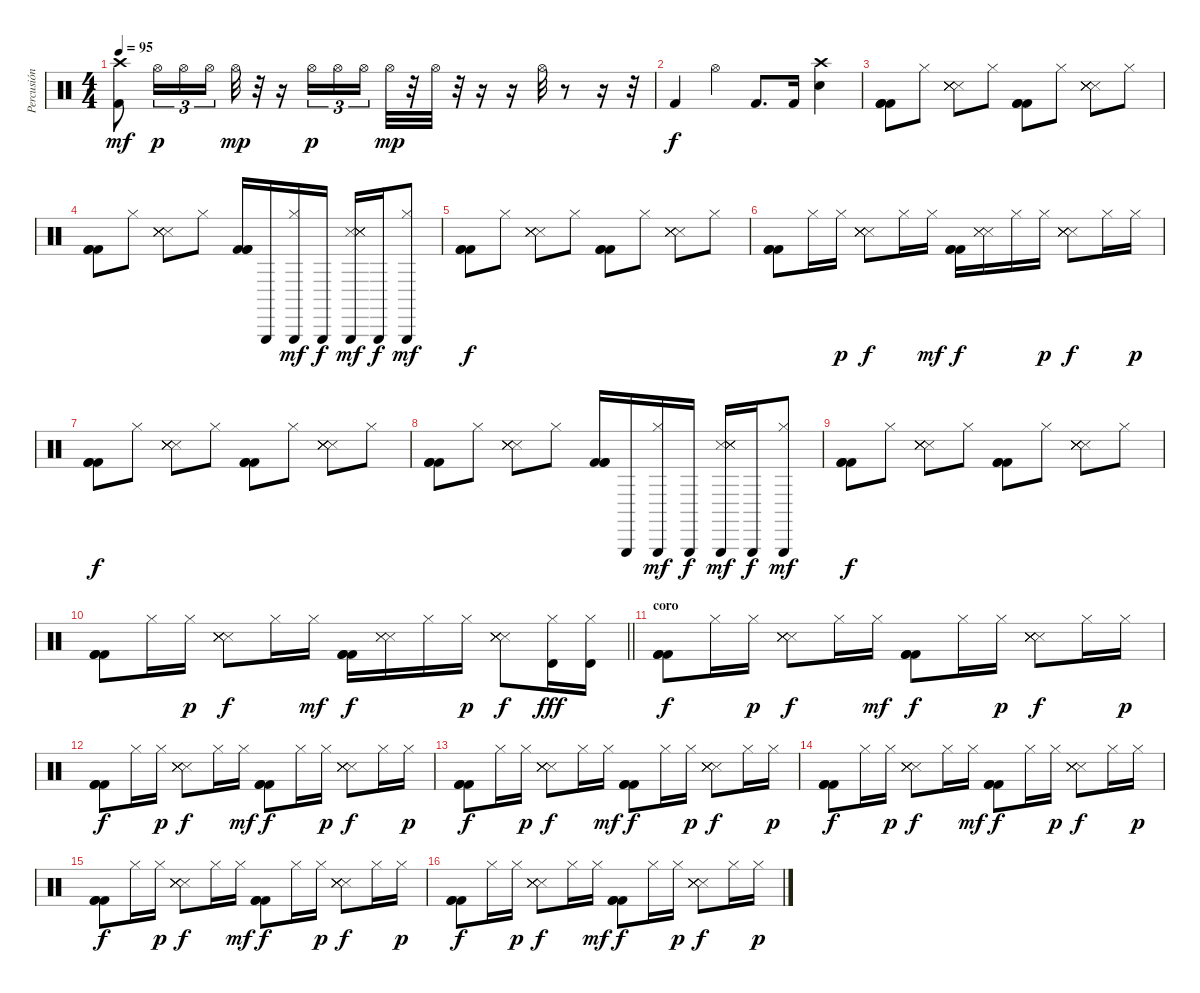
\track ("Percusión" "Percusión") {instrument percussion}
\staff
\articulation defaults
\ts (4 4)
\tempo 95
\clef neutral
\ks c
("Crash high (hit)" "Kick (hit) 2").8{dy mf} "Hi-Hat (open)".16{tu (3 2) dy p} "Hi-Hat (open)".16{tu (3 2)} "Hi-Hat (open)".16{tu (3 2)} "Hi-Hat (open)".32{dy mp} r.32 r.16 "Hi-Hat (open)".16{tu (3 2) dy p} "Hi-Hat (open)".16{tu (3 2)} "Hi-Hat (open)".16{tu (3 2)} "Hi-Hat (open)".32{dy mp} r.32 "Hi-Hat (open)".32 r.32 r.16 r.16 "Hi-Hat (open)".32 r.8 r.16 r.32 |
"Kick (hit) 2".4{dy f} "Hi-Hat (open)".4 "Kick (hit) 2".8{d} "Kick (hit) 2".16 ("Crash high (hit)" "Electric Snare (hit)").4 |
("Kick (hit) 2" "Kick (hit) 2" "Kick (hit) 2").8 "Hi-Hat (closed)".8 ("Metronome (hit)" "Metronome (hit)" "Metronome (hit)" "Metronome (hit)" "Metronome (hit)").8 "Hi-Hat (closed)".8 ("Kick (hit) 2" "Kick (hit) 2" "Kick (hit) 2").8 "Hi-Hat (closed)".8 ("Metronome (hit)" "Metronome (hit)" "Metronome (hit)" "Metronome (hit)" "Metronome (hit)").8 "Hi-Hat (closed)".8 |
("Kick (hit) 2" "Kick (hit) 2" "Kick (hit) 2").8 "Hi-Hat (closed)".8 ("Metronome (hit)" "Metronome (hit)" "Metronome (hit)" "Metronome (hit)" "Metronome (hit)").8 "Hi-Hat (closed)".8 ("Kick (hit) 2" "Kick (hit) 2" "Kick (hit) 2").16 "Triangle (hit)".16 ("Triangle (hit)" "Hi-Hat (closed)").16{dy mf} "Triangle (hit)".16{dy f} ("Metronome (hit)" "Triangle (hit)" "Metronome (hit)" "Metronome (hit)" "Metronome (hit)").16{dy mf} "Triangle (hit)".16{dy f} ("Triangle (hit)" "Hi-Hat (closed)").8{dy mf} |
("Kick (hit) 2" "Kick (hit) 2" "Kick (hit) 2").8{dy f} "Hi-Hat (closed)".8 ("Metronome (hit)" "Metronome (hit)" "Metronome (hit)" "Metronome (hit)" "Metronome (hit)").8 "Hi-Hat (closed)".8 ("Kick (hit) 2" "Kick (hit) 2" "Kick (hit) 2").8 "Hi-Hat (closed)".8 ("Metronome (hit)" "Metronome (hit)" "Metronome (hit)" "Metronome (hit)" "Metronome (hit)").8 "Hi-Hat (closed)".8 |
("Kick (hit) 2" "Kick (hit) 2" "Kick (hit) 2").8 "Hi-Hat (closed)".16 "Hi-Hat (closed)".16{dy p} ("Metronome (hit)" "Metronome (hit)" "Metronome (hit)" "Metronome (hit)" "Metronome (hit)").8{dy f} "Hi-Hat (closed)".16 "Hi-Hat (closed)".16{dy mf} ("Kick (hit) 2" "Kick (hit) 2" "Kick (hit) 2").16{dy f} ("Snare (side stick) 3" "Snare (side stick) 3" "Snare (side stick) 3").16 "Hi-Hat (closed)".16 "Hi-Hat (closed)".16{dy p} ("Snare (side stick) 3" "Snare (side stick) 3" "Snare (side stick) 3" "Snare (side stick) 3" "Snare (side stick) 3").8{dy f} "Hi-Hat (closed)".16 "Hi-Hat (closed)".16{dy p} |
("Kick (hit) 2" "Kick (hit) 2" "Kick (hit) 2").8{dy f} "Hi-Hat (closed)".8 ("Metronome (hit)" "Metronome (hit)" "Metronome (hit)" "Metronome (hit)" "Metronome (hit)").8 "Hi-Hat (closed)".8 ("Kick (hit) 2" "Kick (hit) 2" "Kick (hit) 2").8 "Hi-Hat (closed)".8 ("Metronome (hit)" "Metronome (hit)" "Metronome (hit)" "Metronome (hit)" "Metronome (hit)").8 "Hi-Hat (closed)".8 |
("Kick (hit) 2" "Kick (hit) 2" "Kick (hit) 2").8 "Hi-Hat (closed)".8 ("Metronome (hit)" "Metronome (hit)" "Metronome (hit)" "Metronome (hit)" "Metronome (hit)").8 "Hi-Hat (closed)".8 ("Kick (hit) 2" "Kick (hit) 2" "Kick (hit) 2").16 "Triangle (hit)".16 ("Triangle (hit)" "Hi-Hat (closed)").16{dy mf} "Triangle (hit)".16{dy f} ("Metronome (hit)" "Triangle (hit)" "Metronome (hit)" "Metronome (hit)" "Metronome (hit)").16{dy mf} "Triangle (hit)".16{dy f} ("Triangle (hit)" "Hi-Hat (closed)").8{dy mf} |
("Kick (hit) 2" "Kick (hit) 2" "Kick (hit) 2").8{dy f} "Hi-Hat (closed)".8 ("Metronome (hit)" "Metronome (hit)" "Metronome (hit)" "Metronome (hit)" "Metronome (hit)").8 "Hi-Hat (closed)".8 ("Kick (hit) 2" "Kick (hit) 2" "Kick (hit) 2").8 "Hi-Hat (closed)".8 ("Metronome (hit)" "Metronome (hit)" "Metronome (hit)" "Metronome (hit)" "Metronome (hit)").8 "Hi-Hat (closed)".8 |
\barLineRight lightlight
("Kick (hit) 2" "Kick (hit) 2" "Kick (hit) 2").8 "Hi-Hat (closed)".16 "Hi-Hat (closed)".16{dy p} ("Metronome (hit)" "Metronome (hit)" "Metronome (hit)" "Metronome (hit)" "Metronome (hit)").8{dy f} "Hi-Hat (closed)".16 "Hi-Hat (closed)".16{dy mf} ("Kick (hit) 2" "Kick (hit) 2" "Kick (hit) 2").16{dy f} ("Snare (side stick) 3" "Snare (side stick) 3" "Snare (side stick) 3").16 "Hi-Hat (closed)".16 "Hi-Hat (closed)".16{dy p} ("Snare (side stick) 3" "Snare (side stick) 3" "Snare (side stick) 3" "Snare (side stick) 3" "Snare (side stick) 3").8{dy f} ("Hi-Hat (closed)" "Timbale high (hit)").16{dy fff} ("Hi-Hat (closed)" "Timbale high (hit)").16 |
\section ("" "coro")
("Kick (hit) 2" "Kick (hit) 2" "Kick (hit) 2").8{dy f} "Hi-Hat (closed)".16 "Hi-Hat (closed)".16{dy p} ("Metronome (hit)" "Metronome (hit)" "Metronome (hit)" "Metronome (hit)" "Metronome (hit)").8{dy f} "Hi-Hat (closed)".16 "Hi-Hat (closed)".16{dy mf} ("Kick (hit) 2" "Kick (hit) 2" "Kick (hit) 2").8{dy f} "Hi-Hat (closed)".16 "Hi-Hat (closed)".16{dy p} ("Metronome (hit)" "Metronome (hit)" "Metronome (hit)" "Metronome (hit)" "Metronome (hit)").8{dy f} "Hi-Hat (closed)".16 "Hi-Hat (closed)".16{dy p} |
("Kick (hit) 2" "Kick (hit) 2" "Kick (hit) 2").8{dy f} "Hi-Hat (closed)".16 "Hi-Hat (closed)".16{dy p} ("Metronome (hit)" "Metronome (hit)" "Metronome (hit)" "Metronome (hit)" "Metronome (hit)").8{dy f} "Hi-Hat (closed)".16 "Hi-Hat (closed)".16{dy mf} ("Kick (hit) 2" "Kick (hit) 2" "Kick (hit) 2").8{dy f} "Hi-Hat (closed)".16 "Hi-Hat (closed)".16{dy p} ("Metronome (hit)" "Metronome (hit)" "Metronome (hit)" "Metronome (hit)" "Metronome (hit)").8{dy f} "Hi-Hat (closed)".16 "Hi-Hat (closed)".16{dy p} |
("Kick (hit) 2" "Kick (hit) 2" "Kick (hit) 2").8{dy f} "Hi-Hat (closed)".16 "Hi-Hat (closed)".16{dy p} ("Metronome (hit)" "Metronome (hit)" "Metronome (hit)" "Metronome (hit)" "Metronome (hit)").8{dy f} "Hi-Hat (closed)".16 "Hi-Hat (closed)".16{dy mf} ("Kick (hit) 2" "Kick (hit) 2" "Kick (hit) 2").8{dy f} "Hi-Hat (closed)".16 "Hi-Hat (closed)".16{dy p} ("Metronome (hit)" "Metronome (hit)" "Metronome (hit)" "Metronome (hit)" "Metronome (hit)").8{dy f} "Hi-Hat (closed)".16 "Hi-Hat (closed)".16{dy p} |
("Kick (hit) 2" "Kick (hit) 2" "Kick (hit) 2").8{dy f} "Hi-Hat (closed)".16 "Hi-Hat (closed)".16{dy p} ("Metronome (hit)" "Metronome (hit)" "Metronome (hit)" "Metronome (hit)" "Metronome (hit)").8{dy f} "Hi-Hat (closed)".16 "Hi-Hat (closed)".16{dy mf} ("Kick (hit) 2" "Kick (hit) 2" "Kick (hit) 2").8{dy f} "Hi-Hat (closed)".16 "Hi-Hat (closed)".16{dy p} ("Metronome (hit)" "Metronome (hit)" "Metronome (hit)" "Metronome (hit)" "Metronome (hit)").8{dy f} "Hi-Hat (closed)".16 "Hi-Hat (closed)".16{dy p} |
("Kick (hit) 2" "Kick (hit) 2" "Kick (hit) 2").8{dy f} "Hi-Hat (closed)".16 "Hi-Hat (closed)".16{dy p} ("Metronome (hit)" "Metronome (hit)" "Metronome (hit)" "Metronome (hit)" "Metronome (hit)").8{dy f} "Hi-Hat (closed)".16 "Hi-Hat (closed)".16{dy mf} ("Kick (hit) 2" "Kick (hit) 2" "Kick (hit) 2").8{dy f} "Hi-Hat (closed)".16 "Hi-Hat (closed)".16{dy p} ("Metronome (hit)" "Metronome (hit)" "Metronome (hit)" "Metronome (hit)" "Metronome (hit)").8{dy f} "Hi-Hat (closed)".16 "Hi-Hat (closed)".16{dy p} |
("Kick (hit) 2" "Kick (hit) 2" "Kick (hit) 2").8{dy f} "Hi-Hat (closed)".16 "Hi-Hat (closed)".16{dy p} ("Metronome (hit)" "Metronome (hit)" "Metronome (hit)" "Metronome (hit)" "Metronome (hit)").8{dy f} "Hi-Hat (closed)".16 "Hi-Hat (closed)".16{dy mf} ("Kick (hit) 2" "Kick (hit) 2" "Kick (hit) 2").8{dy f} "Hi-Hat (closed)".16 "Hi-Hat (closed)".16{dy p} ("Metronome (hit)" "Metronome (hit)" "Metronome (hit)" "Metronome (hit)" "Metronome (hit)").8{dy f} "Hi-Hat (closed)".16 "Hi-Hat (closed)".16{dy p}
